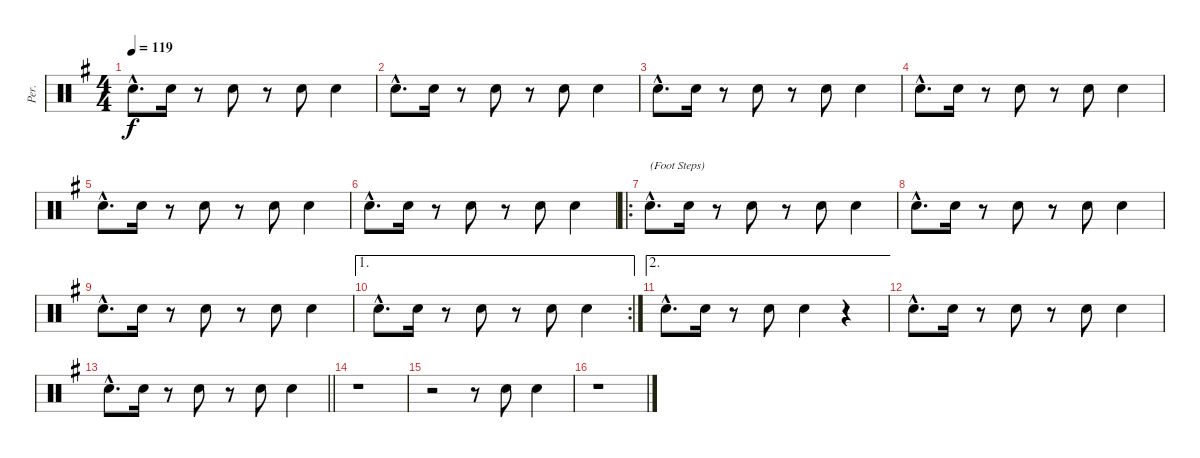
\track ("Per." "Per.") {instrument percussion}
\staff {score}
\articulation defaults
\ts (4 4)
\tempo 119
\clef neutral
\ks eminor "Hand Clap (hit)"{hac}.8{d dy f} "Hand Clap (hit)".16
r.8 "Hand Clap (hit)".8 r.8 "Hand Clap (hit)".8 "Hand Clap (hit)".4 |
"Hand Clap (hit)"{hac}.8{d} "Hand Clap (hit)".16 r.8 "Hand Clap (hit)".8 r.8 "Hand Clap (hit)".8 "Hand Clap (hit)".4 |
"Hand Clap (hit)"{hac}.8{d} "Hand Clap (hit)".16 r.8 "Hand Clap (hit)".8 r.8 "Hand Clap (hit)".8 "Hand Clap (hit)".4 |
"Hand Clap (hit)"{hac}.8{d} "Hand Clap (hit)".16 r.8 "Hand Clap (hit)".8 r.8 "Hand Clap (hit)".8 "Hand Clap (hit)".4 |
"Hand Clap (hit)"{hac}.8{d} "Hand Clap (hit)".16 r.8 "Hand Clap (hit)".8 r.8 "Hand Clap (hit)".8 "Hand Clap (hit)".4 |
"Hand Clap (hit)"{hac}.8{d} "Hand Clap (hit)".16 r.8 "Hand Clap (hit)".8 r.8 "Hand Clap (hit)".8 "Hand Clap (hit)".4 |
\ro "Hand Clap (hit)"{hac}.8{d txt "(Foot Steps)"} "Hand Clap (hit)".16
r.8 "Hand Clap (hit)".8 r.8 "Hand Clap (hit)".8 "Hand Clap (hit)".4 |
"Hand Clap (hit)"{hac}.8{d} "Hand Clap (hit)".16 r.8 "Hand Clap (hit)".8 r.8 "Hand Clap (hit)".8 "Hand Clap (hit)".4 |
"Hand Clap (hit)"{hac}.8{d} "Hand Clap (hit)".16 r.8 "Hand Clap (hit)".8 r.8 "Hand Clap (hit)".8 "Hand Clap (hit)".4 |
\ae 1
\rc 2 "Hand Clap (hit)"{hac}.8{d} "Hand Clap (hit)".16
r.8 "Hand Clap (hit)".8 r.8 "Hand Clap (hit)".8 "Hand Clap (hit)".4 |
\ae 2 "Hand Clap (hit)"{hac}.8{d} "Hand Clap (hit)".16
r.8 "Hand Clap (hit)".8 "Hand Clap (hit)".4 r.4 |
"Hand Clap (hit)"{hac}.8{d} "Hand Clap (hit)".16 r.8 "Hand Clap (hit)".8 r.8 "Hand Clap (hit)".8 "Hand Clap (hit)".4 |
\barLineRight lightlight "Hand Clap (hit)"{hac}.8{d} "Hand Clap (hit)".16
r.8 "Hand Clap (hit)".8 r.8 "Hand Clap (hit)".8 "Hand Clap (hit)".4 |
r.1 |
r.2 r.8 "Hand Clap (hit)".8 "Hand Clap (hit)".4 |
r.1
